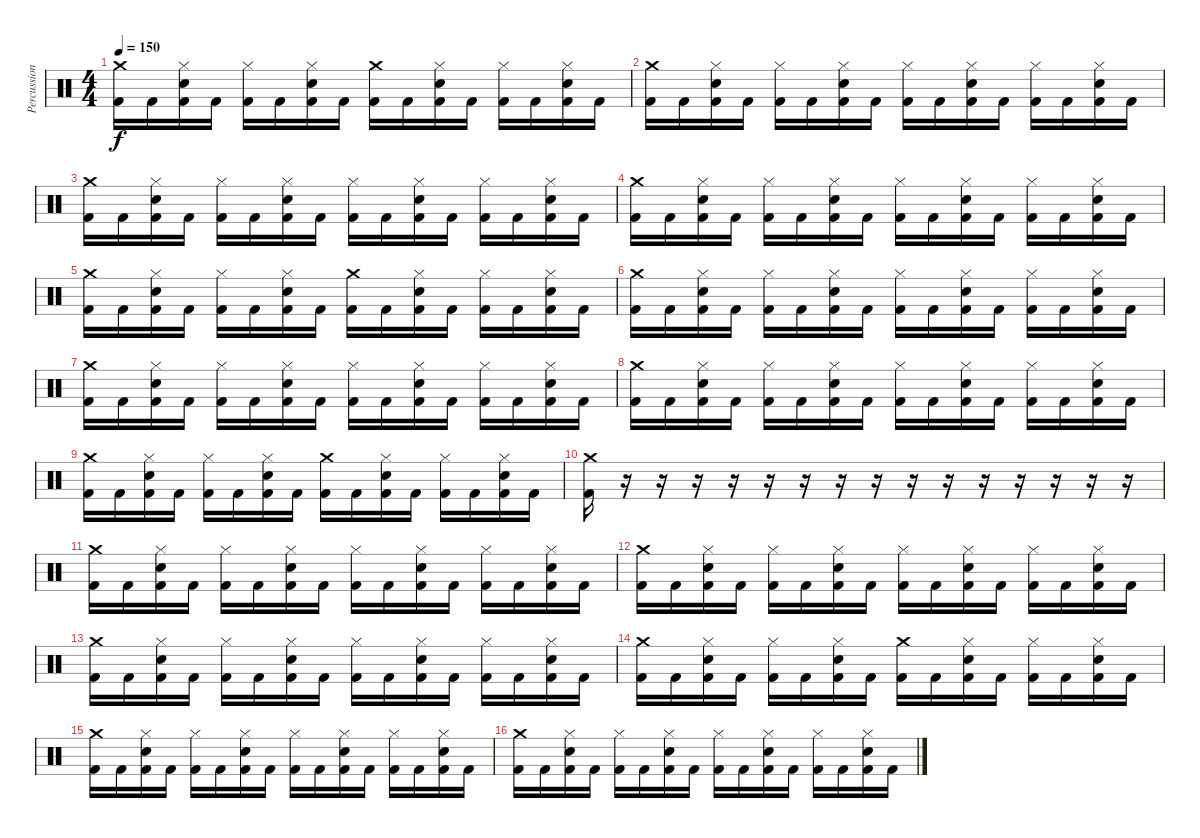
\track ("Percussioni" "Percussion") {instrument percussion}
\staff {score}
\articulation defaults
\ts (4 4)
\tempo 150
\clef neutral
\ks c
("Crash medium (hit)" "Kick (hit) 2").16{dy f} "Kick (hit) 2".16 ("Hi-Hat (closed)" "Electric Snare (hit)" "Kick (hit) 2").16 "Kick (hit) 2".16 ("Hi-Hat (closed)" "Kick (hit) 2").16 "Kick (hit) 2".16 ("Hi-Hat (closed)" "Electric Snare (hit)" "Kick (hit) 2").16 "Kick (hit) 2".16 ("Crash medium (hit)" "Kick (hit) 2").16 "Kick (hit) 2".16 ("Hi-Hat (closed)" "Electric Snare (hit)" "Kick (hit) 2").16 "Kick (hit) 2".16 ("Hi-Hat (closed)" "Kick (hit) 2").16 "Kick (hit) 2".16 ("Hi-Hat (closed)" "Electric Snare (hit)" "Kick (hit) 2").16 "Kick (hit) 2".16 |
("Crash medium (hit)" "Kick (hit) 2").16 "Kick (hit) 2".16 ("Hi-Hat (closed)" "Electric Snare (hit)" "Kick (hit) 2").16 "Kick (hit) 2".16 ("Hi-Hat (closed)" "Kick (hit) 2").16 "Kick (hit) 2".16 ("Hi-Hat (closed)" "Electric Snare (hit)" "Kick (hit) 2").16 "Kick (hit) 2".16 ("Hi-Hat (closed)" "Kick (hit) 2").16 "Kick (hit) 2".16 ("Hi-Hat (closed)" "Electric Snare (hit)" "Kick (hit) 2").16 "Kick (hit) 2".16 ("Hi-Hat (closed)" "Kick (hit) 2").16 "Kick (hit) 2".16 ("Hi-Hat (closed)" "Electric Snare (hit)" "Kick (hit) 2").16 "Kick (hit) 2".16 |
("Crash medium (hit)" "Kick (hit) 2").16 "Kick (hit) 2".16 ("Hi-Hat (closed)" "Electric Snare (hit)" "Kick (hit) 2").16 "Kick (hit) 2".16 ("Hi-Hat (closed)" "Kick (hit) 2").16 "Kick (hit) 2".16 ("Hi-Hat (closed)" "Electric Snare (hit)" "Kick (hit) 2").16 "Kick (hit) 2".16 ("Hi-Hat (closed)" "Kick (hit) 2").16 "Kick (hit) 2".16 ("Hi-Hat (closed)" "Electric Snare (hit)" "Kick (hit) 2").16 "Kick (hit) 2".16 ("Hi-Hat (closed)" "Kick (hit) 2").16 "Kick (hit) 2".16 ("Hi-Hat (closed)" "Electric Snare (hit)" "Kick (hit) 2").16 "Kick (hit) 2".16 |
("Crash medium (hit)" "Kick (hit) 2").16 "Kick (hit) 2".16 ("Hi-Hat (closed)" "Electric Snare (hit)" "Kick (hit) 2").16 "Kick (hit) 2".16 ("Hi-Hat (closed)" "Kick (hit) 2").16 "Kick (hit) 2".16 ("Hi-Hat (closed)" "Electric Snare (hit)" "Kick (hit) 2").16 "Kick (hit) 2".16 ("Hi-Hat (closed)" "Kick (hit) 2").16 "Kick (hit) 2".16 ("Hi-Hat (closed)" "Electric Snare (hit)" "Kick (hit) 2").16 "Kick (hit) 2".16 ("Hi-Hat (closed)" "Kick (hit) 2").16 "Kick (hit) 2".16 ("Hi-Hat (closed)" "Electric Snare (hit)" "Kick (hit) 2").16 "Kick (hit) 2".16 |
("Crash medium (hit)" "Kick (hit) 2").16 "Kick (hit) 2".16 ("Hi-Hat (closed)" "Electric Snare (hit)" "Kick (hit) 2").16 "Kick (hit) 2".16 ("Hi-Hat (closed)" "Kick (hit) 2").16 "Kick (hit) 2".16 ("Hi-Hat (closed)" "Electric Snare (hit)" "Kick (hit) 2").16 "Kick (hit) 2".16 ("Crash medium (hit)" "Kick (hit) 2").16 "Kick (hit) 2".16 ("Hi-Hat (closed)" "Electric Snare (hit)" "Kick (hit) 2").16 "Kick (hit) 2".16 ("Hi-Hat (closed)" "Kick (hit) 2").16 "Kick (hit) 2".16 ("Hi-Hat (closed)" "Electric Snare (hit)" "Kick (hit) 2").16 "Kick (hit) 2".16 |
("Crash medium (hit)" "Kick (hit) 2").16 "Kick (hit) 2".16 ("Hi-Hat (closed)" "Electric Snare (hit)" "Kick (hit) 2").16 "Kick (hit) 2".16 ("Hi-Hat (closed)" "Kick (hit) 2").16 "Kick (hit) 2".16 ("Hi-Hat (closed)" "Electric Snare (hit)" "Kick (hit) 2").16 "Kick (hit) 2".16 ("Hi-Hat (closed)" "Kick (hit) 2").16 "Kick (hit) 2".16 ("Hi-Hat (closed)" "Electric Snare (hit)" "Kick (hit) 2").16 "Kick (hit) 2".16 ("Hi-Hat (closed)" "Kick (hit) 2").16 "Kick (hit) 2".16 ("Hi-Hat (closed)" "Electric Snare (hit)" "Kick (hit) 2").16 "Kick (hit) 2".16 |
("Crash medium (hit)" "Kick (hit) 2").16 "Kick (hit) 2".16 ("Hi-Hat (closed)" "Electric Snare (hit)" "Kick (hit) 2").16 "Kick (hit) 2".16 ("Hi-Hat (closed)" "Kick (hit) 2").16 "Kick (hit) 2".16 ("Hi-Hat (closed)" "Electric Snare (hit)" "Kick (hit) 2").16 "Kick (hit) 2".16 ("Hi-Hat (closed)" "Kick (hit) 2").16 "Kick (hit) 2".16 ("Hi-Hat (closed)" "Electric Snare (hit)" "Kick (hit) 2").16 "Kick (hit) 2".16 ("Hi-Hat (closed)" "Kick (hit) 2").16 "Kick (hit) 2".16 ("Hi-Hat (closed)" "Electric Snare (hit)" "Kick (hit) 2").16 "Kick (hit) 2".16 |
("Crash medium (hit)" "Kick (hit) 2").16 "Kick (hit) 2".16 ("Hi-Hat (closed)" "Electric Snare (hit)" "Kick (hit) 2").16 "Kick (hit) 2".16 ("Hi-Hat (closed)" "Kick (hit) 2").16 "Kick (hit) 2".16 ("Hi-Hat (closed)" "Electric Snare (hit)" "Kick (hit) 2").16 "Kick (hit) 2".16 ("Hi-Hat (closed)" "Kick (hit) 2").16 "Kick (hit) 2".16 ("Hi-Hat (closed)" "Electric Snare (hit)" "Kick (hit) 2").16 "Kick (hit) 2".16 ("Hi-Hat (closed)" "Kick (hit) 2").16 "Kick (hit) 2".16 ("Hi-Hat (closed)" "Electric Snare (hit)" "Kick (hit) 2").16 "Kick (hit) 2".16 |
("Crash medium (hit)" "Kick (hit) 2").16 "Kick (hit) 2".16 ("Hi-Hat (closed)" "Electric Snare (hit)" "Kick (hit) 2").16 "Kick (hit) 2".16 ("Hi-Hat (closed)" "Kick (hit) 2").16 "Kick (hit) 2".16 ("Hi-Hat (closed)" "Electric Snare (hit)" "Kick (hit) 2").16 "Kick (hit) 2".16 ("Crash medium (hit)" "Kick (hit) 2").16 "Kick (hit) 2".16 ("Hi-Hat (closed)" "Electric Snare (hit)" "Kick (hit) 2").16 "Kick (hit) 2".16 ("Hi-Hat (closed)" "Kick (hit) 2").16 "Kick (hit) 2".16 ("Hi-Hat (closed)" "Electric Snare (hit)" "Kick (hit) 2").16 "Kick (hit) 2".16 |
("Crash medium (hit)" "Kick (hit) 2").16 r.16 r.16 r.16 r.16 r.16 r.16 r.16 r.16 r.16 r.16 r.16 r.16 r.16 r.16 r.16 |
("Crash medium (hit)" "Kick (hit) 2").16 "Kick (hit) 2".16 ("Hi-Hat (closed)" "Electric Snare (hit)" "Kick (hit) 2").16 "Kick (hit) 2".16 ("Hi-Hat (closed)" "Kick (hit) 2").16 "Kick (hit) 2".16 ("Hi-Hat (closed)" "Electric Snare (hit)" "Kick (hit) 2").16 "Kick (hit) 2".16 ("Hi-Hat (closed)" "Kick (hit) 2").16 "Kick (hit) 2".16 ("Hi-Hat (closed)" "Electric Snare (hit)" "Kick (hit) 2").16 "Kick (hit) 2".16 ("Hi-Hat (closed)" "Kick (hit) 2").16 "Kick (hit) 2".16 ("Hi-Hat (closed)" "Electric Snare (hit)" "Kick (hit) 2").16 "Kick (hit) 2".16 |
("Crash medium (hit)" "Kick (hit) 2").16 "Kick (hit) 2".16 ("Hi-Hat (closed)" "Electric Snare (hit)" "Kick (hit) 2").16 "Kick (hit) 2".16 ("Hi-Hat (closed)" "Kick (hit) 2").16 "Kick (hit) 2".16 ("Hi-Hat (closed)" "Electric Snare (hit)" "Kick (hit) 2").16 "Kick (hit) 2".16 ("Hi-Hat (closed)" "Kick (hit) 2").16 "Kick (hit) 2".16 ("Hi-Hat (closed)" "Electric Snare (hit)" "Kick (hit) 2").16 "Kick (hit) 2".16 ("Hi-Hat (closed)" "Kick (hit) 2").16 "Kick (hit) 2".16 ("Hi-Hat (closed)" "Electric Snare (hit)" "Kick (hit) 2").16 "Kick (hit) 2".16 |
("Crash medium (hit)" "Kick (hit) 2").16 "Kick (hit) 2".16 ("Hi-Hat (closed)" "Electric Snare (hit)" "Kick (hit) 2").16 "Kick (hit) 2".16 ("Hi-Hat (closed)" "Kick (hit) 2").16 "Kick (hit) 2".16 ("Hi-Hat (closed)" "Electric Snare (hit)" "Kick (hit) 2").16 "Kick (hit) 2".16 ("Hi-Hat (closed)" "Kick (hit) 2").16 "Kick (hit) 2".16 ("Hi-Hat (closed)" "Electric Snare (hit)" "Kick (hit) 2").16 "Kick (hit) 2".16 ("Hi-Hat (closed)" "Kick (hit) 2").16 "Kick (hit) 2".16 ("Hi-Hat (closed)" "Electric Snare (hit)" "Kick (hit) 2").16 "Kick (hit) 2".16 |
("Crash medium (hit)" "Kick (hit) 2").16 "Kick (hit) 2".16 ("Hi-Hat (closed)" "Electric Snare (hit)" "Kick (hit) 2").16 "Kick (hit) 2".16 ("Hi-Hat (closed)" "Kick (hit) 2").16 "Kick (hit) 2".16 ("Hi-Hat (closed)" "Electric Snare (hit)" "Kick (hit) 2").16 "Kick (hit) 2".16 ("Crash medium (hit)" "Kick (hit) 2").16 "Kick (hit) 2".16 ("Hi-Hat (closed)" "Electric Snare (hit)" "Kick (hit) 2").16 "Kick (hit) 2".16 ("Hi-Hat (closed)" "Kick (hit) 2").16 "Kick (hit) 2".16 ("Hi-Hat (closed)" "Electric Snare (hit)" "Kick (hit) 2").16 "Kick (hit) 2".16 |
("Crash medium (hit)" "Kick (hit) 2").16 "Kick (hit) 2".16 ("Hi-Hat (closed)" "Electric Snare (hit)" "Kick (hit) 2").16 "Kick (hit) 2".16 ("Hi-Hat (closed)" "Kick (hit) 2").16 "Kick (hit) 2".16 ("Hi-Hat (closed)" "Electric Snare (hit)" "Kick (hit) 2").16 "Kick (hit) 2".16 ("Hi-Hat (closed)" "Kick (hit) 2").16 "Kick (hit) 2".16 ("Hi-Hat (closed)" "Electric Snare (hit)" "Kick (hit) 2").16 "Kick (hit) 2".16 ("Hi-Hat (closed)" "Kick (hit) 2").16 "Kick (hit) 2".16 ("Hi-Hat (closed)" "Electric Snare (hit)" "Kick (hit) 2").16 "Kick (hit) 2".16 |
("Crash medium (hit)" "Kick (hit) 2").16 "Kick (hit) 2".16 ("Hi-Hat (closed)" "Electric Snare (hit)" "Kick (hit) 2").16 "Kick (hit) 2".16 ("Hi-Hat (closed)" "Kick (hit) 2").16 "Kick (hit) 2".16 ("Hi-Hat (closed)" "Electric Snare (hit)" "Kick (hit) 2").16 "Kick (hit) 2".16 ("Hi-Hat (closed)" "Kick (hit) 2").16 "Kick (hit) 2".16 ("Hi-Hat (closed)" "Electric Snare (hit)" "Kick (hit) 2").16 "Kick (hit) 2".16 ("Hi-Hat (closed)" "Kick (hit) 2").16 "Kick (hit) 2".16 ("Hi-Hat (closed)" "Electric Snare (hit)" "Kick (hit) 2").16 "Kick (hit) 2".16
